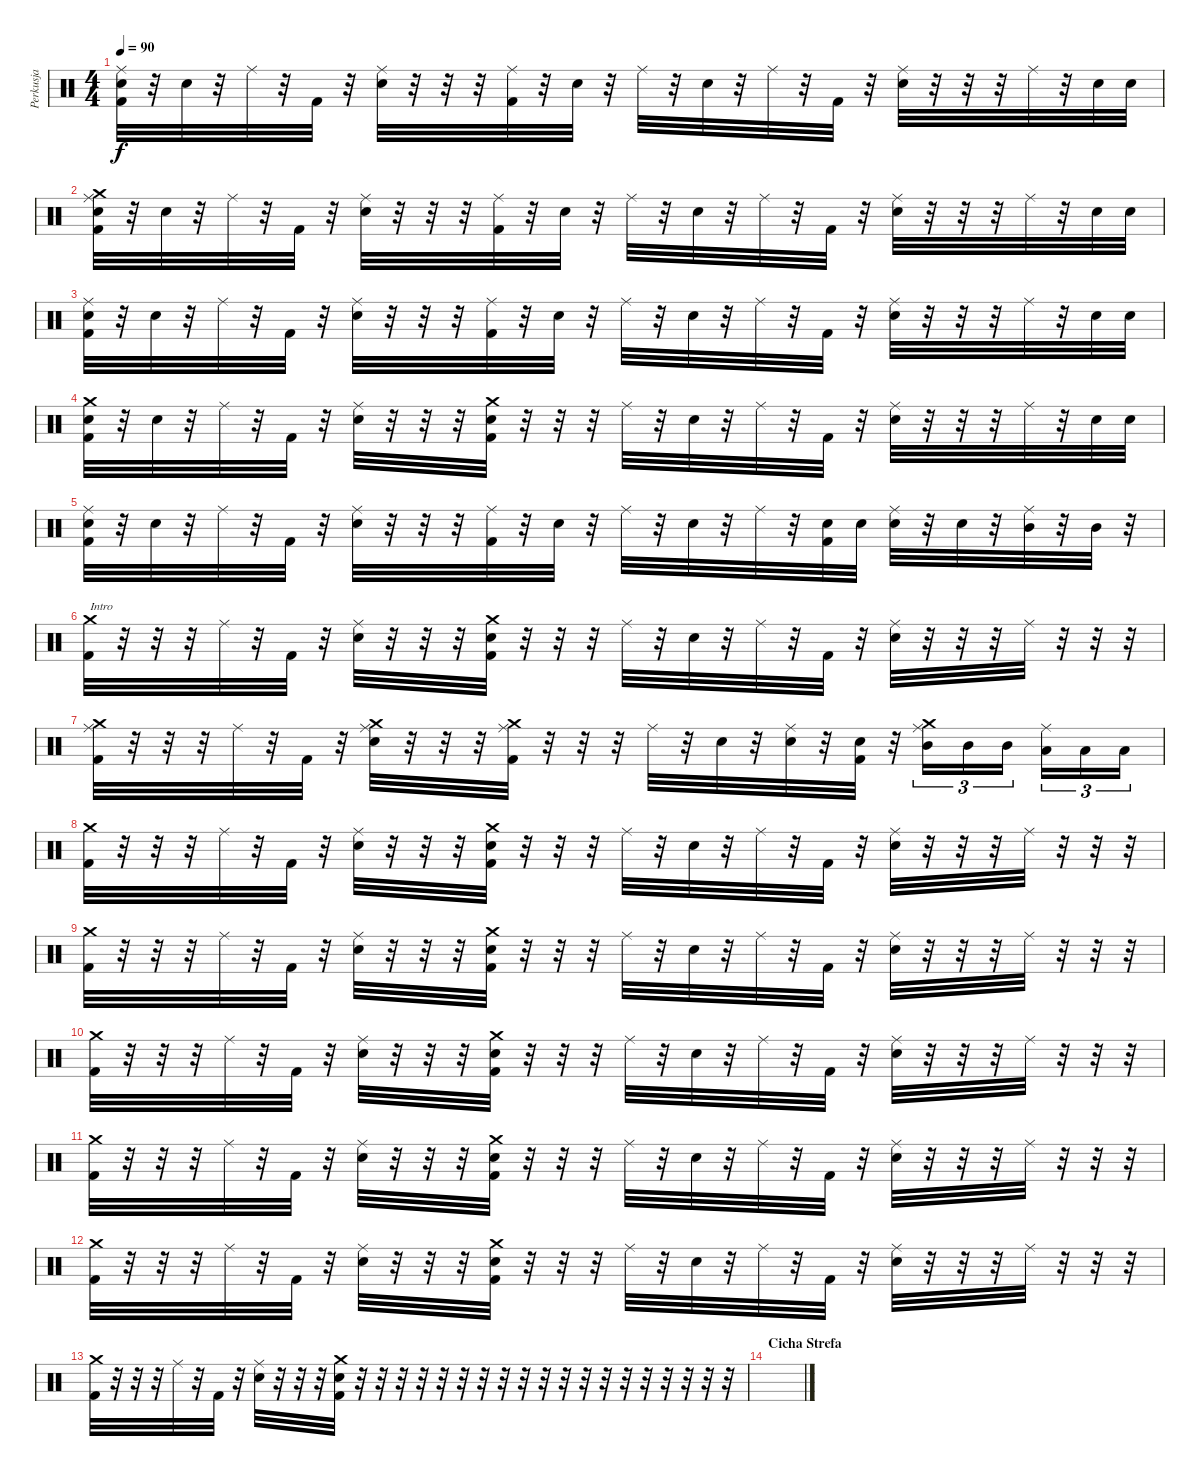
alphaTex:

\track ("Perkusja" "Perkusja") {instrument percussion}
\staff {score}
\articulation defaults
\ts (4 4)
\tempo 90
\clef neutral
\ks c
("Ride (middle)" "Snare (hit) 2" "Kick (hit) 2").32{dy f} r.32 "Snare (hit) 2".32 r.32 "Ride (middle)".32 r.32 "Kick (hit) 2".32 r.32 ("Ride (middle)" "Electric Snare (hit)").32 r.32 r.32 r.32 ("Ride (middle)" "Kick (hit) 2").32 r.32 "Snare (hit) 2".32 r.32 "Ride (middle)".32 r.32 "Snare (hit) 2".32 r.32 "Ride (middle)".32 r.32 "Kick (hit) 2".32 r.32 ("Ride (middle)" "Electric Snare (hit)").32 r.32 r.32 r.32 "Ride (middle)".32 r.32 "Snare (hit) 2".32 "Snare (hit) 2".32 |
("Crash medium (hit)" "Ride (middle)" "Snare (hit) 2" "Kick (hit) 2").32 r.32 "Snare (hit) 2".32 r.32 "Ride (middle)".32 r.32 "Kick (hit) 2".32 r.32 ("Ride (middle)" "Electric Snare (hit)").32 r.32 r.32 r.32 ("Ride (middle)" "Kick (hit) 2").32 r.32 "Snare (hit) 2".32 r.32 "Ride (middle)".32 r.32 "Snare (hit) 2".32 r.32 "Ride (middle)".32 r.32 "Kick (hit) 2".32 r.32 ("Ride (middle)" "Electric Snare (hit)").32 r.32 r.32 r.32 "Ride (middle)".32 r.32 "Snare (hit) 2".32 "Snare (hit) 2".32 |
("Ride (middle)" "Snare (hit) 2" "Kick (hit) 2").32 r.32 "Snare (hit) 2".32 r.32 "Ride (middle)".32 r.32 "Kick (hit) 2".32 r.32 ("Ride (middle)" "Electric Snare (hit)").32 r.32 r.32 r.32 ("Ride (middle)" "Kick (hit) 2").32 r.32 "Snare (hit) 2".32 r.32 "Ride (middle)".32 r.32 "Snare (hit) 2".32 r.32 "Ride (middle)".32 r.32 "Kick (hit) 2".32 r.32 ("Ride (middle)" "Electric Snare (hit)").32 r.32 r.32 r.32 "Ride (middle)".32 r.32 "Snare (hit) 2".32 "Snare (hit) 2".32 |
("Crash medium (hit)" "Snare (hit) 2" "Kick (hit) 2").32 r.32 "Snare (hit) 2".32 r.32 "Ride (middle)".32 r.32 "Kick (hit) 2".32 r.32 ("Ride (middle)" "Electric Snare (hit)").32 r.32 r.32 r.32 ("Crash medium (hit)" "Electric Snare (hit)" "Kick (hit) 2").32 r.32 r.32 r.32 "Ride (middle)".32 r.32 "Snare (hit) 2".32 r.32 "Ride (middle)".32 r.32 "Kick (hit) 2".32 r.32 ("Ride (middle)" "Electric Snare (hit)").32 r.32 r.32 r.32 "Ride (middle)".32 r.32 "Snare (hit) 2".32 "Snare (hit) 2".32 |
("Ride (middle)" "Snare (hit) 2" "Kick (hit) 2").32 r.32 "Snare (hit) 2".32 r.32 "Ride (middle)".32 r.32 "Kick (hit) 2".32 r.32 ("Ride (middle)" "Electric Snare (hit)").32 r.32 r.32 r.32 ("Ride (middle)" "Kick (hit) 2").32 r.32 "Snare (hit) 2".32 r.32 "Ride (middle)".32 r.32 "Snare (hit) 2".32 r.32 "Ride (middle)".32 r.32 ("Electric Snare (hit)" "Kick (hit) 2").32 "Electric Snare (hit)".32 ("Ride (middle)" "Electric Snare (hit)").32 r.32 "Electric Snare (hit)".32 r.32 ("Ride (middle)" "Mid Tom (hit)").32 r.32 "Mid Tom (hit)".32 r.32 |
("Crash medium (hit)" "Kick (hit) 2").32{txt "Intro"} r.32 r.32 r.32 "Ride (middle)".32 r.32 "Kick (hit) 2".32 r.32 ("Ride (middle)" "Electric Snare (hit)").32 r.32 r.32 r.32 ("Crash medium (hit)" "Electric Snare (hit)" "Kick (hit) 2").32 r.32 r.32 r.32 "Ride (middle)".32 r.32 "Snare (hit) 2".32 r.32 "Ride (middle)".32 r.32 "Kick (hit) 2".32 r.32 ("Ride (middle)" "Electric Snare (hit)").32 r.32 r.32 r.32 "Ride (middle)".32 r.32 r.32 r.32 |
("Crash medium (hit)" "Ride (middle)" "Kick (hit) 2").32 r.32 r.32 r.32 "Ride (middle)".32 r.32 "Kick (hit) 2".32 r.32 ("Crash medium (hit)" "Ride (middle)" "Electric Snare (hit)").32 r.32 r.32 r.32 ("Crash medium (hit)" "Ride (middle)" "Kick (hit) 2").32 r.32 r.32 r.32 "Ride (middle)".32 r.32 "Electric Snare (hit)".32 r.32 ("Ride (middle)" "Electric Snare (hit)").32 r.32 ("Electric Snare (hit)" "Kick (hit) 2").32 r.32 ("Crash medium (hit)" "Ride (middle)" "Mid Tom (hit)").16{tu (3 2)} "Mid Tom (hit)".16{tu (3 2)} "Mid Tom (hit)".16{tu (3 2)} ("Ride (middle)" "Low Tom (hit)").16{tu (3 2)} "Low Tom (hit)".16{tu (3 2)} "Low Tom (hit)".16{tu (3 2)} |
("Crash medium (hit)" "Kick (hit) 2").32 r.32 r.32 r.32 "Ride (middle)".32 r.32 "Kick (hit) 2".32 r.32 ("Ride (middle)" "Electric Snare (hit)").32 r.32 r.32 r.32 ("Crash medium (hit)" "Electric Snare (hit)" "Kick (hit) 2").32 r.32 r.32 r.32 "Ride (middle)".32 r.32 "Snare (hit) 2".32 r.32 "Ride (middle)".32 r.32 "Kick (hit) 2".32 r.32 ("Ride (middle)" "Electric Snare (hit)").32 r.32 r.32 r.32 "Ride (middle)".32 r.32 r.32 r.32 |
("Crash medium (hit)" "Kick (hit) 2").32 r.32 r.32 r.32 "Ride (middle)".32 r.32 "Kick (hit) 2".32 r.32 ("Ride (middle)" "Electric Snare (hit)").32 r.32 r.32 r.32 ("Crash medium (hit)" "Electric Snare (hit)" "Kick (hit) 2").32 r.32 r.32 r.32 "Ride (middle)".32 r.32 "Snare (hit) 2".32 r.32 "Ride (middle)".32 r.32 "Kick (hit) 2".32 r.32 ("Ride (middle)" "Electric Snare (hit)").32 r.32 r.32 r.32 "Ride (middle)".32 r.32 r.32 r.32 |
("Crash medium (hit)" "Kick (hit) 2").32 r.32 r.32 r.32 "Ride (middle)".32 r.32 "Kick (hit) 2".32 r.32 ("Ride (middle)" "Electric Snare (hit)").32 r.32 r.32 r.32 ("Crash medium (hit)" "Electric Snare (hit)" "Kick (hit) 2").32 r.32 r.32 r.32 "Ride (middle)".32 r.32 "Snare (hit) 2".32 r.32 "Ride (middle)".32 r.32 "Kick (hit) 2".32 r.32 ("Ride (middle)" "Electric Snare (hit)").32 r.32 r.32 r.32 "Ride (middle)".32 r.32 r.32 r.32 |
("Crash medium (hit)" "Kick (hit) 2").32 r.32 r.32 r.32 "Ride (middle)".32 r.32 "Kick (hit) 2".32 r.32 ("Ride (middle)" "Electric Snare (hit)").32 r.32 r.32 r.32 ("Crash medium (hit)" "Electric Snare (hit)" "Kick (hit) 2").32 r.32 r.32 r.32 "Ride (middle)".32 r.32 "Snare (hit) 2".32 r.32 "Ride (middle)".32 r.32 "Kick (hit) 2".32 r.32 ("Ride (middle)" "Electric Snare (hit)").32 r.32 r.32 r.32 "Ride (middle)".32 r.32 r.32 r.32 |
("Crash medium (hit)" "Kick (hit) 2").32 r.32 r.32 r.32 "Ride (middle)".32 r.32 "Kick (hit) 2".32 r.32 ("Ride (middle)" "Electric Snare (hit)").32 r.32 r.32 r.32 ("Crash medium (hit)" "Electric Snare (hit)" "Kick (hit) 2").32 r.32 r.32 r.32 "Ride (middle)".32 r.32 "Snare (hit) 2".32 r.32 "Ride (middle)".32 r.32 "Kick (hit) 2".32 r.32 ("Ride (middle)" "Electric Snare (hit)").32 r.32 r.32 r.32 "Ride (middle)".32 r.32 r.32 r.32 |
("Crash medium (hit)" "Kick (hit) 2").32 r.32 r.32 r.32 "Ride (middle)".32 r.32 "Kick (hit) 2".32 r.32 ("Ride (middle)" "Electric Snare (hit)").32 r.32 r.32 r.32 ("Crash medium (hit)" "Electric Snare (hit)" "Kick (hit) 2").32 r.32 r.32 r.32 r.32 r.32 r.32 r.32 r.32 r.32 r.32 r.32 r.32 r.32 r.32 r.32 r.32 r.32 r.32 r.32 |
\section ("" "Cicha Strefa")
